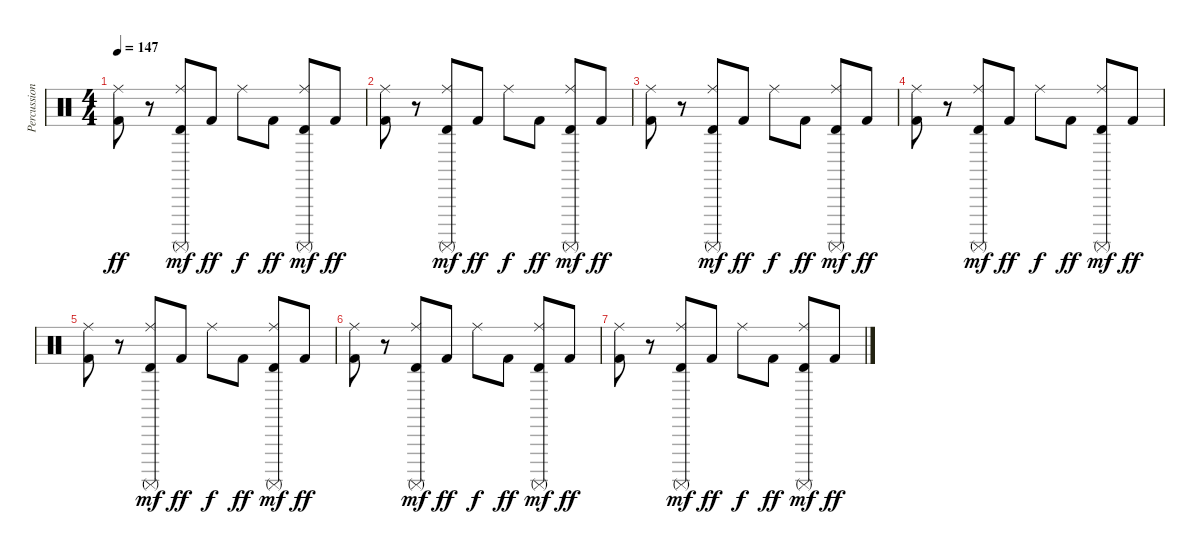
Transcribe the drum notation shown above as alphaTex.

\track ("Percussion" "Percussion") {instrument percussion}
\staff {score}
\articulation defaults
\ts (4 4)
\tempo 147
\clef neutral
\ks c
("Ride (middle)" "Kick (hit) 2").8{dy ff} r.8 ("Ride (middle)" "Surdo (mute)" "Timbale high (hit)").8{dy mf} "Kick (hit) 2".8{dy ff} "Ride (middle)".8{dy f} "Kick (hit) 2".8{dy ff} ("Ride (middle)" "Surdo (mute)" "Timbale high (hit)").8{dy mf} "Kick (hit) 2".8{dy ff} |
("Ride (middle)" "Kick (hit) 2").8 r.8 ("Ride (middle)" "Surdo (mute)" "Timbale high (hit)").8{dy mf} "Kick (hit) 2".8{dy ff} "Ride (middle)".8{dy f} "Kick (hit) 2".8{dy ff} ("Ride (middle)" "Surdo (mute)" "Timbale high (hit)").8{dy mf} "Kick (hit) 2".8{dy ff} |
("Ride (middle)" "Kick (hit) 2").8 r.8 ("Ride (middle)" "Surdo (mute)" "Timbale high (hit)").8{dy mf} "Kick (hit) 2".8{dy ff} "Ride (middle)".8{dy f} "Kick (hit) 2".8{dy ff} ("Ride (middle)" "Surdo (mute)" "Timbale high (hit)").8{dy mf} "Kick (hit) 2".8{dy ff} |
("Ride (middle)" "Kick (hit) 2").8 r.8 ("Ride (middle)" "Surdo (mute)" "Timbale high (hit)").8{dy mf} "Kick (hit) 2".8{dy ff} "Ride (middle)".8{dy f} "Kick (hit) 2".8{dy ff} ("Ride (middle)" "Surdo (mute)" "Timbale high (hit)").8{dy mf} "Kick (hit) 2".8{dy ff} |
("Ride (middle)" "Kick (hit) 2").8 r.8 ("Ride (middle)" "Surdo (mute)" "Timbale high (hit)").8{dy mf} "Kick (hit) 2".8{dy ff} "Ride (middle)".8{dy f} "Kick (hit) 2".8{dy ff} ("Ride (middle)" "Surdo (mute)" "Timbale high (hit)").8{dy mf} "Kick (hit) 2".8{dy ff} |
("Ride (middle)" "Kick (hit) 2").8 r.8 ("Ride (middle)" "Surdo (mute)" "Timbale high (hit)").8{dy mf} "Kick (hit) 2".8{dy ff} "Ride (middle)".8{dy f} "Kick (hit) 2".8{dy ff} ("Ride (middle)" "Surdo (mute)" "Timbale high (hit)").8{dy mf} "Kick (hit) 2".8{dy ff} |
("Ride (middle)" "Kick (hit) 2").8 r.8 ("Ride (middle)" "Surdo (mute)" "Timbale high (hit)").8{dy mf} "Kick (hit) 2".8{dy ff} "Ride (middle)".8{dy f} "Kick (hit) 2".8{dy ff} ("Ride (middle)" "Surdo (mute)" "Timbale high (hit)").8{dy mf} "Kick (hit) 2".8{dy ff}
